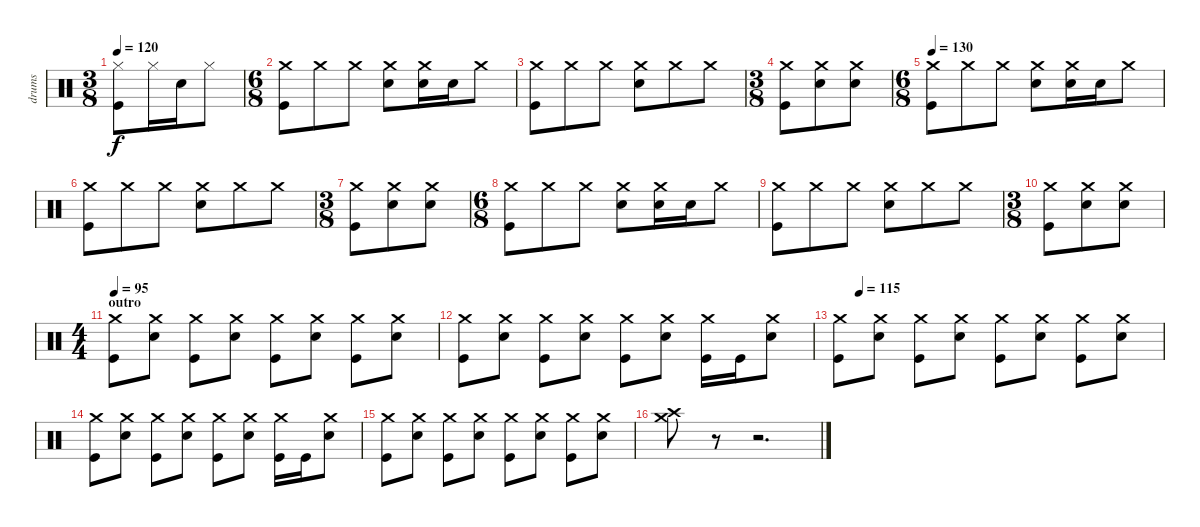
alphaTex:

\track ("drums" "drums") {instrument percussion}
\staff {score}
\articulation defaults
\ts (3 8)
\tempo 120
\clef neutral
\ks c
("Hi-Hat (closed)" "Kick (hit)").8{dy f} "Hi-Hat (closed)".16 "Snare (hit) 2".16 "Hi-Hat (closed)".8 |
\ts (6 8)
("Crash medium (hit)" "Kick (hit)").8 "Crash medium (hit)".8 "Crash medium (hit)".8 ("Crash medium (hit)" "Snare (hit) 2").8 ("Crash medium (hit)" "Snare (hit) 2").16 "Snare (hit) 2".16 "Crash medium (hit)".8 |
("Crash medium (hit)" "Kick (hit)").8 "Crash medium (hit)".8 "Crash medium (hit)".8 ("Crash medium (hit)" "Snare (hit) 2").8 "Crash medium (hit)".8 "Crash medium (hit)".8 |
\ts (3 8)
("Crash medium (hit)" "Kick (hit)").8 ("Crash medium (hit)" "Snare (hit) 2").8 ("Crash medium (hit)" "Snare (hit) 2").8 |
\ts (6 8)
\tempo 130
("Crash medium (hit)" "Kick (hit)").8 "Crash medium (hit)".8 "Crash medium (hit)".8 ("Crash medium (hit)" "Snare (hit) 2").8 ("Crash medium (hit)" "Snare (hit) 2").16 "Snare (hit) 2".16 "Crash medium (hit)".8 |
("Crash medium (hit)" "Kick (hit)").8 "Crash medium (hit)".8 "Crash medium (hit)".8 ("Crash medium (hit)" "Snare (hit) 2").8 "Crash medium (hit)".8 "Crash medium (hit)".8 |
\ts (3 8)
("Crash medium (hit)" "Kick (hit)").8 ("Crash medium (hit)" "Snare (hit) 2").8 ("Crash medium (hit)" "Snare (hit) 2").8 |
\ts (6 8)
("Crash medium (hit)" "Kick (hit)").8 "Crash medium (hit)".8 "Crash medium (hit)".8 ("Crash medium (hit)" "Snare (hit) 2").8 ("Crash medium (hit)" "Snare (hit) 2").16 "Snare (hit) 2".16 "Crash medium (hit)".8 |
("Crash medium (hit)" "Kick (hit)").8 "Crash medium (hit)".8 "Crash medium (hit)".8 ("Crash medium (hit)" "Snare (hit) 2").8 "Crash medium (hit)".8 "Crash medium (hit)".8 |
\ts (3 8)
("Crash medium (hit)" "Kick (hit)").8 ("Crash medium (hit)" "Snare (hit) 2").8 ("Crash medium (hit)" "Snare (hit) 2").8 |
\ts (4 4)
\section ("" "outro")
\tempo 95
("Crash medium (hit)" "Kick (hit)").8 ("Crash medium (hit)" "Snare (hit) 2").8 ("Crash medium (hit)" "Kick (hit)").8 ("Crash medium (hit)" "Snare (hit) 2").8 ("Crash medium (hit)" "Kick (hit)").8 ("Crash medium (hit)" "Snare (hit) 2").8 ("Crash medium (hit)" "Kick (hit)").8 ("Crash medium (hit)" "Snare (hit) 2").8 |
("Crash medium (hit)" "Kick (hit)").8 ("Crash medium (hit)" "Snare (hit) 2").8 ("Crash medium (hit)" "Kick (hit)").8 ("Crash medium (hit)" "Snare (hit) 2").8 ("Crash medium (hit)" "Kick (hit)").8 ("Crash medium (hit)" "Snare (hit) 2").8 ("Crash medium (hit)" "Kick (hit)").16 "Kick (hit)".16 ("Crash medium (hit)" "Snare (hit) 2").8 |
\tempo (115 0.0625)
("Crash medium (hit)" "Kick (hit)").8 ("Crash medium (hit)" "Snare (hit) 2").8 ("Crash medium (hit)" "Kick (hit)").8 ("Crash medium (hit)" "Snare (hit) 2").8 ("Crash medium (hit)" "Kick (hit)").8 ("Crash medium (hit)" "Snare (hit) 2").8 ("Crash medium (hit)" "Kick (hit)").8 ("Crash medium (hit)" "Snare (hit) 2").8 |
("Crash medium (hit)" "Kick (hit)").8 ("Crash medium (hit)" "Snare (hit) 2").8 ("Crash medium (hit)" "Kick (hit)").8 ("Crash medium (hit)" "Snare (hit) 2").8 ("Crash medium (hit)" "Kick (hit)").8 ("Crash medium (hit)" "Snare (hit) 2").8 ("Crash medium (hit)" "Kick (hit)").16 "Kick (hit)".16 ("Crash medium (hit)" "Snare (hit) 2").8 |
("Crash medium (hit)" "Kick (hit)").8 ("Crash medium (hit)" "Snare (hit) 2").8 ("Crash medium (hit)" "Kick (hit)").8 ("Crash medium (hit)" "Snare (hit) 2").8 ("Crash medium (hit)" "Kick (hit)").8 ("Crash medium (hit)" "Snare (hit) 2").8 ("Crash medium (hit)" "Kick (hit)").8 ("Crash medium (hit)" "Snare (hit) 2").8 |
("Crash medium (hit)" "Crash high (hit)").8 r.8 r.2{d}
